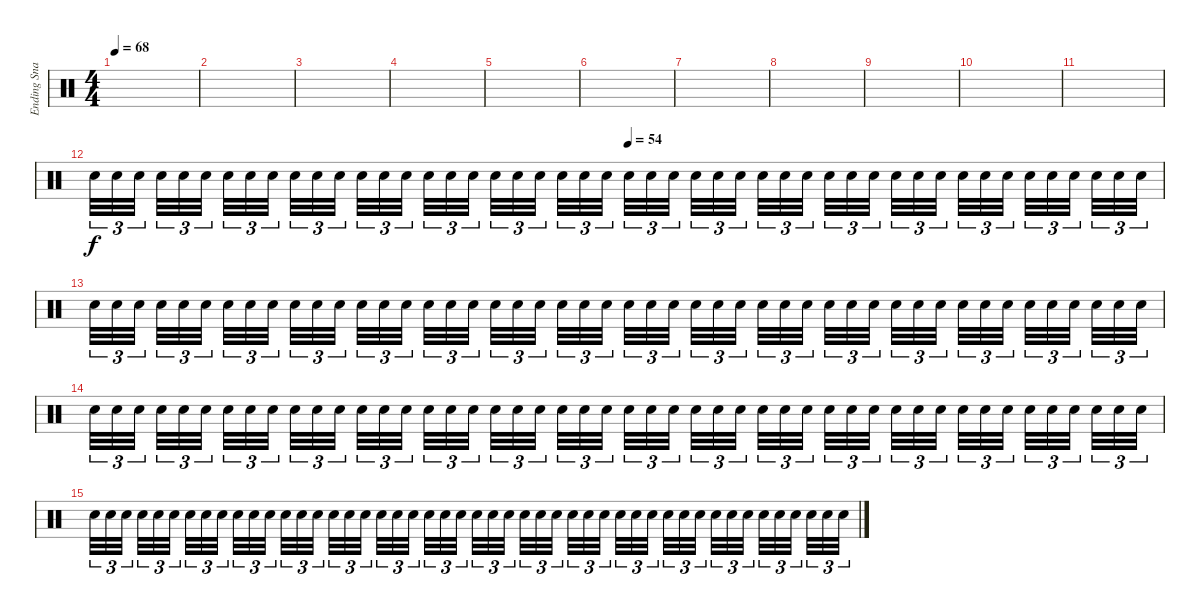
\track ("Ending Snare" "Ending Sna") {instrument percussion}
\staff {score}
\articulation defaults
\ts (4 4)
\tempo 68
\clef neutral
\ks c
|
|
|
|
|
|
|
|
|
|
|
\tempo (54 0.5)
"Electric Snare (hit)".32{tu (3 2)} "Electric Snare (hit)".32{tu (3 2)} "Electric Snare (hit)".32{tu (3 2) beam splitsecondary} "Electric Snare (hit)".32{tu (3 2)} "Electric Snare (hit)".32{tu (3 2)} "Electric Snare (hit)".32{tu (3 2) beam splitsecondary} "Electric Snare (hit)".32{tu (3 2)} "Electric Snare (hit)".32{tu (3 2)} "Electric Snare (hit)".32{tu (3 2) beam splitsecondary} "Electric Snare (hit)".32{tu (3 2)} "Electric Snare (hit)".32{tu (3 2)} "Electric Snare (hit)".32{tu (3 2)} "Electric Snare (hit)".32{tu (3 2)} "Electric Snare (hit)".32{tu (3 2)} "Electric Snare (hit)".32{tu (3 2) beam splitsecondary} "Electric Snare (hit)".32{tu (3 2)} "Electric Snare (hit)".32{tu (3 2)} "Electric Snare (hit)".32{tu (3 2) beam splitsecondary} "Electric Snare (hit)".32{tu (3 2)} "Electric Snare (hit)".32{tu (3 2)} "Electric Snare (hit)".32{tu (3 2) beam splitsecondary} "Electric Snare (hit)".32{tu (3 2)} "Electric Snare (hit)".32{tu (3 2)} "Electric Snare (hit)".32{tu (3 2)} "Electric Snare (hit)".32{tu (3 2)} "Electric Snare (hit)".32{tu (3 2)} "Electric Snare (hit)".32{tu (3 2) beam splitsecondary} "Electric Snare (hit)".32{tu (3 2)} "Electric Snare (hit)".32{tu (3 2)} "Electric Snare (hit)".32{tu (3 2) beam splitsecondary} "Electric Snare (hit)".32{tu (3 2)} "Electric Snare (hit)".32{tu (3 2)} "Electric Snare (hit)".32{tu (3 2) beam splitsecondary} "Electric Snare (hit)".32{tu (3 2)} "Electric Snare (hit)".32{tu (3 2)} "Electric Snare (hit)".32{tu (3 2)} "Electric Snare (hit)".32{tu (3 2)} "Electric Snare (hit)".32{tu (3 2)} "Electric Snare (hit)".32{tu (3 2) beam splitsecondary} "Electric Snare (hit)".32{tu (3 2)} "Electric Snare (hit)".32{tu (3 2)} "Electric Snare (hit)".32{tu (3 2) beam splitsecondary} "Electric Snare (hit)".32{tu (3 2)} "Electric Snare (hit)".32{tu (3 2)} "Electric Snare (hit)".32{tu (3 2) beam splitsecondary} "Electric Snare (hit)".32{tu (3 2)} "Electric Snare (hit)".32{tu (3 2)} "Electric Snare (hit)".32{tu (3 2)} |
"Electric Snare (hit)".32{tu (3 2)} "Electric Snare (hit)".32{tu (3 2)} "Electric Snare (hit)".32{tu (3 2) beam splitsecondary} "Electric Snare (hit)".32{tu (3 2)} "Electric Snare (hit)".32{tu (3 2)} "Electric Snare (hit)".32{tu (3 2) beam splitsecondary} "Electric Snare (hit)".32{tu (3 2)} "Electric Snare (hit)".32{tu (3 2)} "Electric Snare (hit)".32{tu (3 2) beam splitsecondary} "Electric Snare (hit)".32{tu (3 2)} "Electric Snare (hit)".32{tu (3 2)} "Electric Snare (hit)".32{tu (3 2)} "Electric Snare (hit)".32{tu (3 2)} "Electric Snare (hit)".32{tu (3 2)} "Electric Snare (hit)".32{tu (3 2) beam splitsecondary} "Electric Snare (hit)".32{tu (3 2)} "Electric Snare (hit)".32{tu (3 2)} "Electric Snare (hit)".32{tu (3 2) beam splitsecondary} "Electric Snare (hit)".32{tu (3 2)} "Electric Snare (hit)".32{tu (3 2)} "Electric Snare (hit)".32{tu (3 2) beam splitsecondary} "Electric Snare (hit)".32{tu (3 2)} "Electric Snare (hit)".32{tu (3 2)} "Electric Snare (hit)".32{tu (3 2)} "Electric Snare (hit)".32{tu (3 2)} "Electric Snare (hit)".32{tu (3 2)} "Electric Snare (hit)".32{tu (3 2) beam splitsecondary} "Electric Snare (hit)".32{tu (3 2)} "Electric Snare (hit)".32{tu (3 2)} "Electric Snare (hit)".32{tu (3 2) beam splitsecondary} "Electric Snare (hit)".32{tu (3 2)} "Electric Snare (hit)".32{tu (3 2)} "Electric Snare (hit)".32{tu (3 2) beam splitsecondary} "Electric Snare (hit)".32{tu (3 2)} "Electric Snare (hit)".32{tu (3 2)} "Electric Snare (hit)".32{tu (3 2)} "Electric Snare (hit)".32{tu (3 2)} "Electric Snare (hit)".32{tu (3 2)} "Electric Snare (hit)".32{tu (3 2) beam splitsecondary} "Electric Snare (hit)".32{tu (3 2)} "Electric Snare (hit)".32{tu (3 2)} "Electric Snare (hit)".32{tu (3 2) beam splitsecondary} "Electric Snare (hit)".32{tu (3 2)} "Electric Snare (hit)".32{tu (3 2)} "Electric Snare (hit)".32{tu (3 2) beam splitsecondary} "Electric Snare (hit)".32{tu (3 2)} "Electric Snare (hit)".32{tu (3 2)} "Electric Snare (hit)".32{tu (3 2)} |
"Electric Snare (hit)".32{tu (3 2)} "Electric Snare (hit)".32{tu (3 2)} "Electric Snare (hit)".32{tu (3 2) beam splitsecondary} "Electric Snare (hit)".32{tu (3 2)} "Electric Snare (hit)".32{tu (3 2)} "Electric Snare (hit)".32{tu (3 2) beam splitsecondary} "Electric Snare (hit)".32{tu (3 2)} "Electric Snare (hit)".32{tu (3 2)} "Electric Snare (hit)".32{tu (3 2) beam splitsecondary} "Electric Snare (hit)".32{tu (3 2)} "Electric Snare (hit)".32{tu (3 2)} "Electric Snare (hit)".32{tu (3 2)} "Electric Snare (hit)".32{tu (3 2)} "Electric Snare (hit)".32{tu (3 2)} "Electric Snare (hit)".32{tu (3 2) beam splitsecondary} "Electric Snare (hit)".32{tu (3 2)} "Electric Snare (hit)".32{tu (3 2)} "Electric Snare (hit)".32{tu (3 2) beam splitsecondary} "Electric Snare (hit)".32{tu (3 2)} "Electric Snare (hit)".32{tu (3 2)} "Electric Snare (hit)".32{tu (3 2) beam splitsecondary} "Electric Snare (hit)".32{tu (3 2)} "Electric Snare (hit)".32{tu (3 2)} "Electric Snare (hit)".32{tu (3 2)} "Electric Snare (hit)".32{tu (3 2)} "Electric Snare (hit)".32{tu (3 2)} "Electric Snare (hit)".32{tu (3 2) beam splitsecondary} "Electric Snare (hit)".32{tu (3 2)} "Electric Snare (hit)".32{tu (3 2)} "Electric Snare (hit)".32{tu (3 2) beam splitsecondary} "Electric Snare (hit)".32{tu (3 2)} "Electric Snare (hit)".32{tu (3 2)} "Electric Snare (hit)".32{tu (3 2) beam splitsecondary} "Electric Snare (hit)".32{tu (3 2)} "Electric Snare (hit)".32{tu (3 2)} "Electric Snare (hit)".32{tu (3 2)} "Electric Snare (hit)".32{tu (3 2)} "Electric Snare (hit)".32{tu (3 2)} "Electric Snare (hit)".32{tu (3 2) beam splitsecondary} "Electric Snare (hit)".32{tu (3 2)} "Electric Snare (hit)".32{tu (3 2)} "Electric Snare (hit)".32{tu (3 2) beam splitsecondary} "Electric Snare (hit)".32{tu (3 2)} "Electric Snare (hit)".32{tu (3 2)} "Electric Snare (hit)".32{tu (3 2) beam splitsecondary} "Electric Snare (hit)".32{tu (3 2)} "Electric Snare (hit)".32{tu (3 2)} "Electric Snare (hit)".32{tu (3 2)} |
"Electric Snare (hit)".32{tu (3 2)} "Electric Snare (hit)".32{tu (3 2)} "Electric Snare (hit)".32{tu (3 2) beam splitsecondary} "Electric Snare (hit)".32{tu (3 2)} "Electric Snare (hit)".32{tu (3 2)} "Electric Snare (hit)".32{tu (3 2) beam splitsecondary} "Electric Snare (hit)".32{tu (3 2)} "Electric Snare (hit)".32{tu (3 2)} "Electric Snare (hit)".32{tu (3 2) beam splitsecondary} "Electric Snare (hit)".32{tu (3 2)} "Electric Snare (hit)".32{tu (3 2)} "Electric Snare (hit)".32{tu (3 2)} "Electric Snare (hit)".32{tu (3 2)} "Electric Snare (hit)".32{tu (3 2)} "Electric Snare (hit)".32{tu (3 2) beam splitsecondary} "Electric Snare (hit)".32{tu (3 2)} "Electric Snare (hit)".32{tu (3 2)} "Electric Snare (hit)".32{tu (3 2) beam splitsecondary} "Electric Snare (hit)".32{tu (3 2)} "Electric Snare (hit)".32{tu (3 2)} "Electric Snare (hit)".32{tu (3 2) beam splitsecondary} "Electric Snare (hit)".32{tu (3 2)} "Electric Snare (hit)".32{tu (3 2)} "Electric Snare (hit)".32{tu (3 2)} "Electric Snare (hit)".32{tu (3 2)} "Electric Snare (hit)".32{tu (3 2)} "Electric Snare (hit)".32{tu (3 2) beam splitsecondary} "Electric Snare (hit)".32{tu (3 2)} "Electric Snare (hit)".32{tu (3 2)} "Electric Snare (hit)".32{tu (3 2) beam splitsecondary} "Electric Snare (hit)".32{tu (3 2)} "Electric Snare (hit)".32{tu (3 2)} "Electric Snare (hit)".32{tu (3 2) beam splitsecondary} "Electric Snare (hit)".32{tu (3 2)} "Electric Snare (hit)".32{tu (3 2)} "Electric Snare (hit)".32{tu (3 2)} "Electric Snare (hit)".32{tu (3 2)} "Electric Snare (hit)".32{tu (3 2)} "Electric Snare (hit)".32{tu (3 2) beam splitsecondary} "Electric Snare (hit)".32{tu (3 2)} "Electric Snare (hit)".32{tu (3 2)} "Electric Snare (hit)".32{tu (3 2) beam splitsecondary} "Electric Snare (hit)".32{tu (3 2)} "Electric Snare (hit)".32{tu (3 2)} "Electric Snare (hit)".32{tu (3 2) beam splitsecondary} "Electric Snare (hit)".32{tu (3 2)} "Electric Snare (hit)".32{tu (3 2)} "Electric Snare (hit)".32{tu (3 2)}
